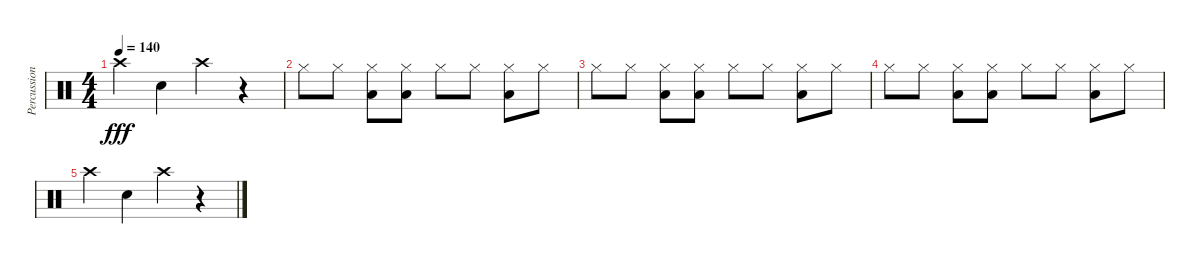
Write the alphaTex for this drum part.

\track ("Percussion" "Percussion") {instrument percussion}
\staff {score}
\articulation defaults
\ts (4 4)
\tempo 140
\clef neutral
\ks c "Crash high (hit)".4{dy fff} "Snare (hit) 2".4 "Crash high (hit)".4
r.4 |
"Hi-Hat (closed)".8 "Hi-Hat (closed)".8 ("Hi-Hat (closed)" "Low Tom (hit)").8 ("Hi-Hat (closed)" "Low Tom (hit)").8 "Hi-Hat (closed)".8 "Hi-Hat (closed)".8 ("Hi-Hat (closed)" "Low Tom (hit)").8 "Hi-Hat (closed)".8 |
"Hi-Hat (closed)".8 "Hi-Hat (closed)".8 ("Hi-Hat (closed)" "Low Tom (hit)").8 ("Hi-Hat (closed)" "Low Tom (hit)").8 "Hi-Hat (closed)".8 "Hi-Hat (closed)".8 ("Hi-Hat (closed)" "Low Tom (hit)").8 "Hi-Hat (closed)".8 |
"Hi-Hat (closed)".8 "Hi-Hat (closed)".8 ("Hi-Hat (closed)" "Low Tom (hit)").8 ("Hi-Hat (closed)" "Low Tom (hit)").8 "Hi-Hat (closed)".8 "Hi-Hat (closed)".8 ("Hi-Hat (closed)" "Low Tom (hit)").8 "Hi-Hat (closed)".8 |
"Crash high (hit)".4 "Snare (hit) 2".4 "Crash high (hit)".4 r.4
